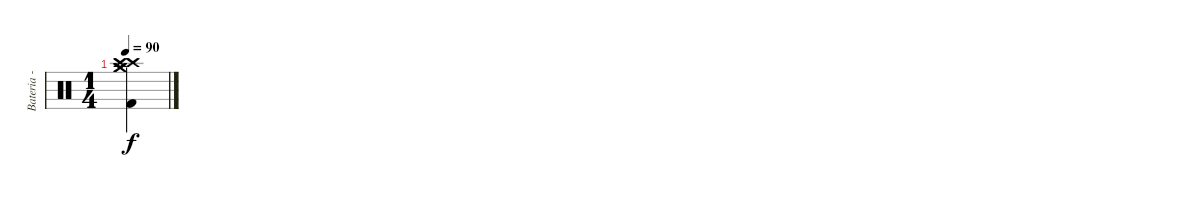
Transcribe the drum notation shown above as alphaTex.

\track ("Bateria - Larzon" "Bateria - ") {instrument percussion}
\staff {score}
\articulation defaults
\ts (1 4)
\tempo 90
\clef neutral
\ks c
("Kick (hit) 2" "Crash high (hit)" "Crash high (hit)" "Crash medium (hit)" "Crash medium (hit)").4{dy f}
